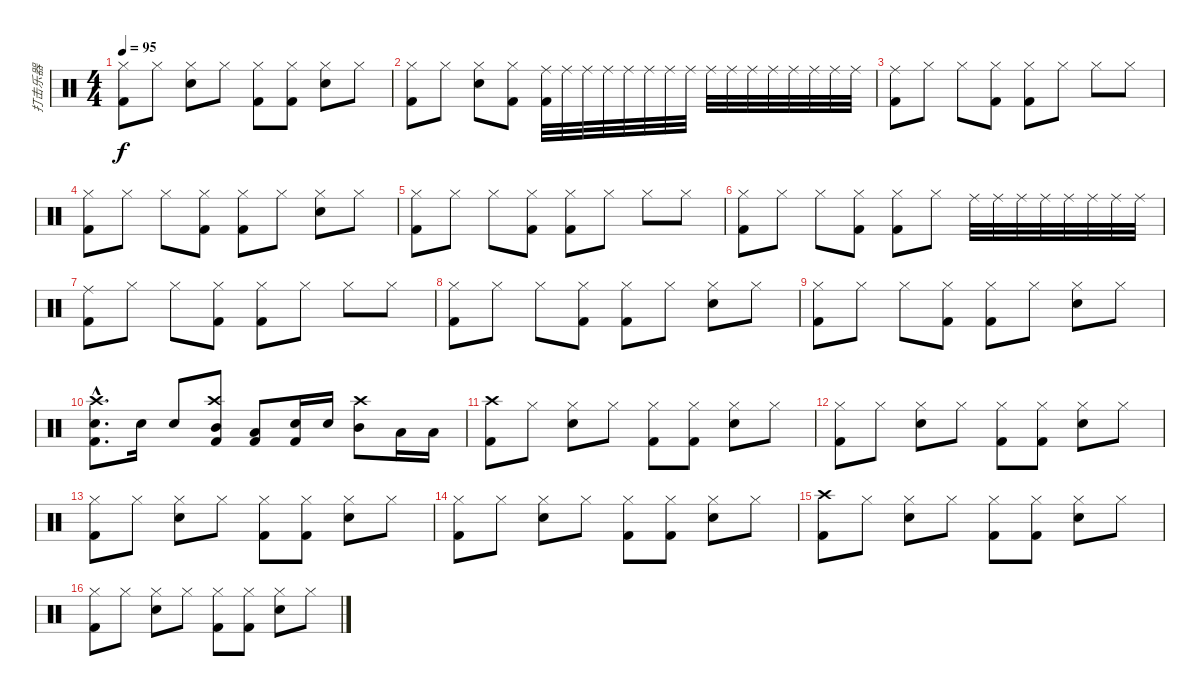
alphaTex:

\track ("打击乐器" "打击乐器") {instrument percussion}
\staff {score}
\articulation defaults
\ts (4 4)
\tempo 95
\clef neutral
\ks c
("Hi-Hat (closed)" "Kick (hit) 2").8{dy f} "Hi-Hat (closed)".8 ("Hi-Hat (closed)" "Electric Snare (hit)").8 "Hi-Hat (closed)".8 ("Hi-Hat (closed)" "Kick (hit) 2").8 ("Hi-Hat (closed)" "Kick (hit) 2").8 ("Hi-Hat (closed)" "Electric Snare (hit)").8 "Hi-Hat (closed)".8 |
("Hi-Hat (closed)" "Kick (hit) 2").8 "Hi-Hat (closed)".8 ("Hi-Hat (closed)" "Electric Snare (hit)").8 ("Hi-Hat (closed)" "Kick (hit) 2").8 ("Ride (middle)" "Kick (hit) 2").32 "Ride (middle)".32 "Ride (middle)".32 "Ride (middle)".32 "Ride (middle)".32 "Ride (middle)".32 "Ride (middle)".32 "Ride (middle)".32 "Ride (middle)".32 "Ride (middle)".32 "Ride (middle)".32 "Ride (middle)".32 "Ride (middle)".32 "Ride (middle)".32 "Ride (middle)".32 "Ride (middle)".32 |
("Ride (middle)" "Kick (hit) 2").8 "Hi-Hat (closed)".8 "Hi-Hat (closed)".8 ("Hi-Hat (closed)" "Kick (hit) 2").8 ("Hi-Hat (closed)" "Kick (hit) 2").8 "Hi-Hat (closed)".8 "Hi-Hat (closed)".8 "Hi-Hat (closed)".8 |
("Hi-Hat (closed)" "Kick (hit) 2").8 "Hi-Hat (closed)".8 "Hi-Hat (closed)".8 ("Hi-Hat (closed)" "Kick (hit) 2").8 ("Hi-Hat (closed)" "Kick (hit) 2").8 "Hi-Hat (closed)".8 ("Hi-Hat (closed)" "Electric Snare (hit)").8 "Hi-Hat (closed)".8 |
("Hi-Hat (closed)" "Kick (hit) 2").8 "Hi-Hat (closed)".8 "Hi-Hat (closed)".8 ("Hi-Hat (closed)" "Kick (hit) 2").8 ("Hi-Hat (closed)" "Kick (hit) 2").8 "Hi-Hat (closed)".8 "Hi-Hat (closed)".8 "Hi-Hat (closed)".8 |
("Hi-Hat (closed)" "Kick (hit) 2").8 "Hi-Hat (closed)".8 "Hi-Hat (closed)".8 ("Hi-Hat (closed)" "Kick (hit) 2").8 ("Hi-Hat (closed)" "Kick (hit) 2").8 "Hi-Hat (closed)".8 "Ride (middle)".32 "Ride (middle)".32 "Ride (middle)".32 "Ride (middle)".32 "Ride (middle)".32 "Ride (middle)".32 "Ride (middle)".32 "Ride (middle)".32 |
("Ride (middle)" "Kick (hit) 2").8 "Hi-Hat (closed)".8 "Hi-Hat (closed)".8 ("Hi-Hat (closed)" "Kick (hit) 2").8 ("Hi-Hat (closed)" "Kick (hit) 2").8 "Hi-Hat (closed)".8 "Hi-Hat (closed)".8 "Hi-Hat (closed)".8 |
("Hi-Hat (closed)" "Kick (hit) 2").8 "Hi-Hat (closed)".8 "Hi-Hat (closed)".8 ("Hi-Hat (closed)" "Kick (hit) 2").8 ("Hi-Hat (closed)" "Kick (hit) 2").8 "Hi-Hat (closed)".8 ("Hi-Hat (closed)" "Electric Snare (hit)").8 "Hi-Hat (closed)".8 |
("Hi-Hat (closed)" "Kick (hit) 2").8 "Hi-Hat (closed)".8 "Hi-Hat (closed)".8 ("Hi-Hat (closed)" "Kick (hit) 2").8 ("Hi-Hat (closed)" "Kick (hit) 2").8 "Hi-Hat (closed)".8 ("Hi-Hat (closed)" "Electric Snare (hit)").8 "Hi-Hat (closed)".8 |
("Crash high (hit)"{hac} "Electric Snare (hit)"{hac} "Kick (hit) 2"{hac}).8{d} "Electric Snare (hit)".16 "Electric Snare (hit)".8 ("Crash high (hit)" "Mid Tom (hit)" "Kick (hit) 2").8 ("Low Tom (hit)" "Kick (hit) 2").8 ("Electric Snare (hit)" "Kick (hit) 2").16 "Electric Snare (hit)".16 ("Crash high (hit)" "Mid Tom (hit)").8 "Low Tom (hit)".16 "Low Tom (hit)".16 |
("Crash high (hit)" "Kick (hit) 2").8 "Hi-Hat (closed)".8 ("Hi-Hat (closed)" "Electric Snare (hit)").8 "Hi-Hat (closed)".8 ("Hi-Hat (closed)" "Kick (hit) 2").8 ("Hi-Hat (closed)" "Kick (hit) 2").8 ("Hi-Hat (closed)" "Electric Snare (hit)").8 "Hi-Hat (closed)".8 |
("Hi-Hat (closed)" "Kick (hit) 2").8 "Hi-Hat (closed)".8 ("Hi-Hat (closed)" "Electric Snare (hit)").8 "Hi-Hat (closed)".8 ("Hi-Hat (closed)" "Kick (hit) 2").8 ("Hi-Hat (closed)" "Kick (hit) 2").8 ("Hi-Hat (closed)" "Electric Snare (hit)").8 "Hi-Hat (closed)".8 |
("Hi-Hat (closed)" "Kick (hit) 2").8 "Hi-Hat (closed)".8 ("Hi-Hat (closed)" "Electric Snare (hit)").8 "Hi-Hat (closed)".8 ("Hi-Hat (closed)" "Kick (hit) 2").8 ("Hi-Hat (closed)" "Kick (hit) 2").8 ("Hi-Hat (closed)" "Electric Snare (hit)").8 "Hi-Hat (closed)".8 |
("Hi-Hat (closed)" "Kick (hit) 2").8 "Hi-Hat (closed)".8 ("Hi-Hat (closed)" "Electric Snare (hit)").8 "Hi-Hat (closed)".8 ("Hi-Hat (closed)" "Kick (hit) 2").8 ("Hi-Hat (closed)" "Kick (hit) 2").8 ("Hi-Hat (closed)" "Electric Snare (hit)").8 "Hi-Hat (closed)".8 |
("Crash high (hit)" "Kick (hit) 2").8 "Hi-Hat (closed)".8 ("Hi-Hat (closed)" "Electric Snare (hit)").8 "Hi-Hat (closed)".8 ("Hi-Hat (closed)" "Kick (hit) 2").8 ("Hi-Hat (closed)" "Kick (hit) 2").8 ("Hi-Hat (closed)" "Electric Snare (hit)").8 "Hi-Hat (closed)".8 |
("Hi-Hat (closed)" "Kick (hit) 2").8 "Hi-Hat (closed)".8 ("Hi-Hat (closed)" "Electric Snare (hit)").8 "Hi-Hat (closed)".8 ("Hi-Hat (closed)" "Kick (hit) 2").8 ("Hi-Hat (closed)" "Kick (hit) 2").8 ("Hi-Hat (closed)" "Electric Snare (hit)").8 "Hi-Hat (closed)".8
